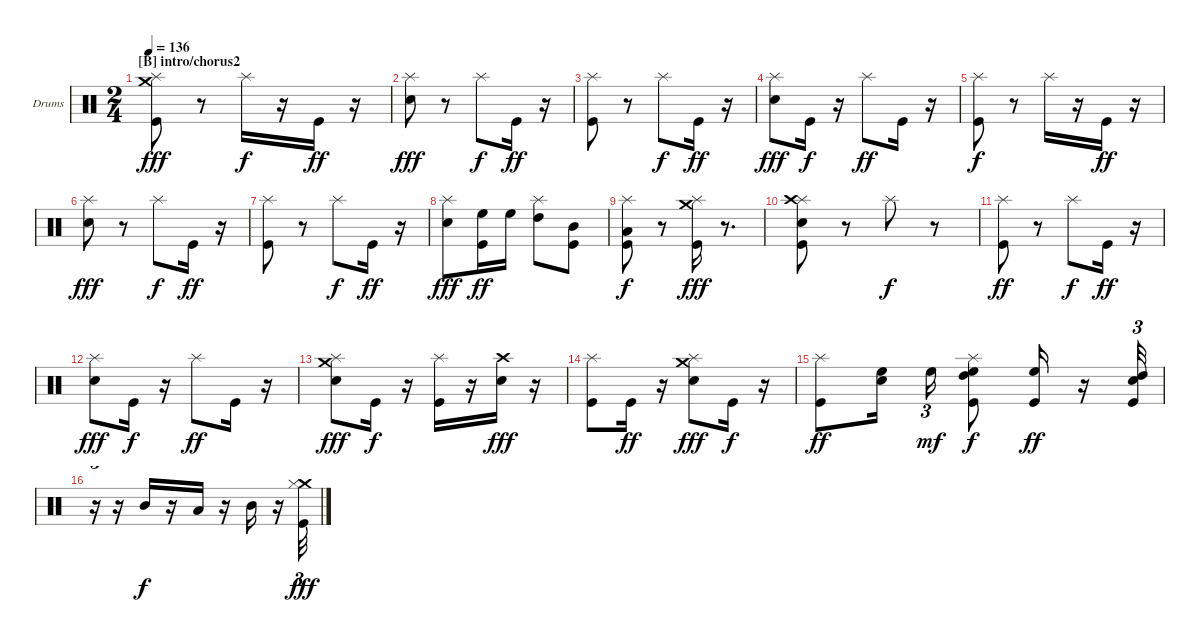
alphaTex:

\bracketExtendMode groupsimilarinstruments
\firstSystemTrackNameOrientation horizontal
\otherSystemsTrackNameOrientation horizontal
\track ("Drumkit" "Drums") {solo instrument percussion}
\staff {score}
\articulation defaults
\ts (2 4)
\section ("B" "intro/chorus2")
\tempo 136
\clef neutral
\ks c
("Crash medium (hit)" "Splash (hit)" "Kick (hit)").8{dy fff} r.8 "Splash (hit)".16{dy f} r.16 "Kick (hit)".16{dy ff} r.16 |
("Splash (hit)" "Snare (hit) 2").8{dy fff} r.8 "Splash (hit)".8{dy f} "Kick (hit)".16{dy ff} r.16 |
("Splash (hit)" "Kick (hit)").8 r.8 "Splash (hit)".8{dy f} "Kick (hit)".16{dy ff} r.16 |
("Splash (hit)" "Snare (hit) 2").8{dy fff} "Kick (hit)".16{dy f} r.16 "Splash (hit)".8{dy ff} "Kick (hit)".16 r.16 |
("Splash (hit)" "Kick (hit)").8{dy f} r.8 "Splash (hit)".16 r.16 "Kick (hit)".16{dy ff} r.16 |
("Splash (hit)" "Snare (hit) 2").8{dy fff} r.8 "Splash (hit)".8{dy f} "Kick (hit)".16{dy ff} r.16 |
("Splash (hit)" "Kick (hit)").8 r.8 "Splash (hit)".8{dy f} "Kick (hit)".16{dy ff} r.16 |
("Splash (hit)" "Snare (hit) 2").8{dy fff} ("High Floor Tom (hit)" "Kick (hit)").16{dy ff} "High Floor Tom (hit)".16 ("High Tom (hit)" "Splash (hit)").8 ("Mid Tom (hit)" "Kick (hit)").8 |
("Splash (hit)" "Kick (hit)" "Low Tom (hit)").8{dy f} r.8 ("Crash medium (hit)" "Splash (hit)" "Kick (hit)").16{dy fff} r.8{d} |
("Splash (hit)" "Kick (hit)" "Snare (hit) 2" "Crash high (hit)").8 r.8 "Splash (hit)".8{dy f} r.8 |
("Splash (hit)" "Kick (hit)").8{dy ff} r.8 "Splash (hit)".8{dy f} "Kick (hit)".16{dy ff} r.16 |
("Splash (hit)" "Snare (hit) 2").8{dy fff} "Kick (hit)".16{dy f} r.16 "Splash (hit)".8{dy ff} "Kick (hit)".16 r.16 |
("Crash medium (hit)" "Splash (hit)" "Snare (hit) 2").8{dy fff} "Kick (hit)".16{dy f} r.16 ("Splash (hit)" "Kick (hit)").16 r.16 ("Crash high (hit)" "Snare (hit) 2").16{dy fff} r.16 |
("Splash (hit)" "Kick (hit)").8 "Kick (hit)".16{dy ff} r.16 ("Crash medium (hit)" "Splash (hit)" "Snare (hit) 2").8{dy fff} "Kick (hit)".16{dy f} r.16 |
("Splash (hit)" "Kick (hit)").8{dy ff} ("High Floor Tom (hit)" "Snare (hit) 2").16 "High Floor Tom (hit)".16{tu (3 2) dy mf} ("High Floor Tom (hit)" "High Tom (hit)" "Splash (hit)" "Kick (hit)").8{dy f} ("High Floor Tom (hit)" "Kick (hit)").16{dy ff} r.16 ("High Tom (hit)" "Kick (hit)" "Snare (hit) 2").32{tu (3 2)} |
r.16{tu (3 2)} r.16 "Mid Tom (hit)".16{dy f} r.16 "Low Tom (hit)".16 r.16 "Mid Tom (hit)".16 r.16 ("Crash medium (hit)" "Hi-Hat (closed)" "Kick (hit)").32{tu (3 2) dy fff}
